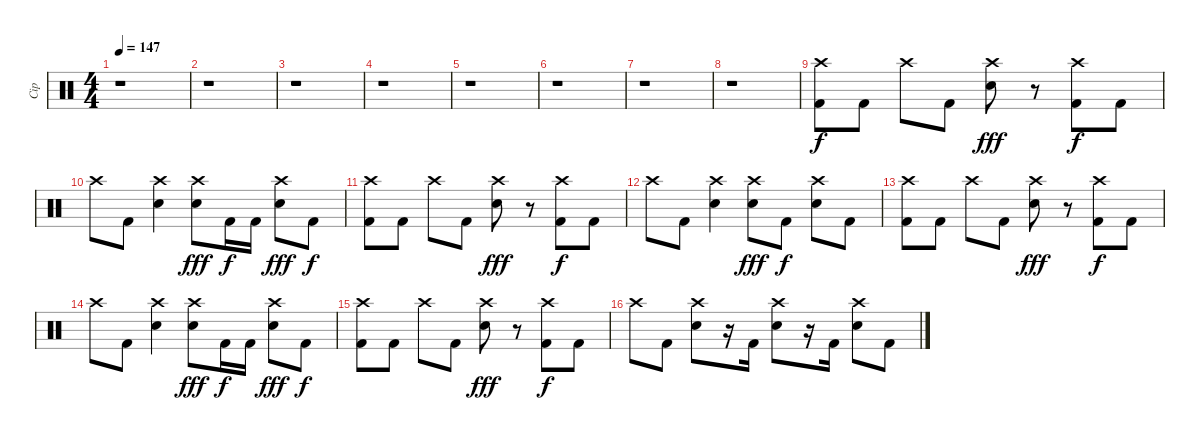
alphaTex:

\track ("Cip" "Cip") {instrument percussion}
\staff {score}
\articulation defaults
\ts (4 4)
\tempo 147
\clef neutral
\ks c
r.1{dy f} |
r.1 |
r.1 |
r.1 |
r.1 |
r.1 |
r.1 |
r.1 |
("Crash high (hit)" "Kick (hit) 2").8 "Kick (hit) 2".8 "Crash high (hit)".8 "Kick (hit) 2".8 ("Crash high (hit)" "Electric Snare (hit)").8{dy fff} r.8 ("Crash high (hit)" "Kick (hit) 2").8{dy f} "Kick (hit) 2".8 |
"Crash high (hit)".8 "Kick (hit) 2".8 ("Crash high (hit)" "Electric Snare (hit)").4 ("Crash high (hit)" "Electric Snare (hit)").8{dy fff} "Kick (hit) 2".16{dy f} "Kick (hit) 2".16 ("Crash high (hit)" "Electric Snare (hit)").8{dy fff} "Kick (hit) 2".8{dy f} |
("Crash high (hit)" "Kick (hit) 2").8 "Kick (hit) 2".8 "Crash high (hit)".8 "Kick (hit) 2".8 ("Crash high (hit)" "Electric Snare (hit)").8{dy fff} r.8 ("Crash high (hit)" "Kick (hit) 2").8{dy f} "Kick (hit) 2".8 |
"Crash high (hit)".8 "Kick (hit) 2".8 ("Crash high (hit)" "Electric Snare (hit)").4 ("Crash high (hit)" "Electric Snare (hit)").8{dy fff} "Kick (hit) 2".8{dy f} ("Crash high (hit)" "Electric Snare (hit)").8 "Kick (hit) 2".8 |
("Crash high (hit)" "Kick (hit) 2").8 "Kick (hit) 2".8 "Crash high (hit)".8 "Kick (hit) 2".8 ("Crash high (hit)" "Electric Snare (hit)").8{dy fff} r.8 ("Crash high (hit)" "Kick (hit) 2").8{dy f} "Kick (hit) 2".8 |
"Crash high (hit)".8 "Kick (hit) 2".8 ("Crash high (hit)" "Electric Snare (hit)").4 ("Crash high (hit)" "Electric Snare (hit)").8{dy fff} "Kick (hit) 2".16{dy f} "Kick (hit) 2".16 ("Crash high (hit)" "Electric Snare (hit)").8{dy fff} "Kick (hit) 2".8{dy f} |
("Crash high (hit)" "Kick (hit) 2").8 "Kick (hit) 2".8 "Crash high (hit)".8 "Kick (hit) 2".8 ("Crash high (hit)" "Electric Snare (hit)").8{dy fff} r.8 ("Crash high (hit)" "Kick (hit) 2").8{dy f} "Kick (hit) 2".8 |
"Crash high (hit)".8 "Kick (hit) 2".8 ("Crash high (hit)" "Electric Snare (hit)").8 r.16 "Kick (hit) 2".16 ("Crash high (hit)" "Electric Snare (hit)").8 r.16 "Kick (hit) 2".16 ("Crash high (hit)" "Electric Snare (hit)").8 "Kick (hit) 2".8
